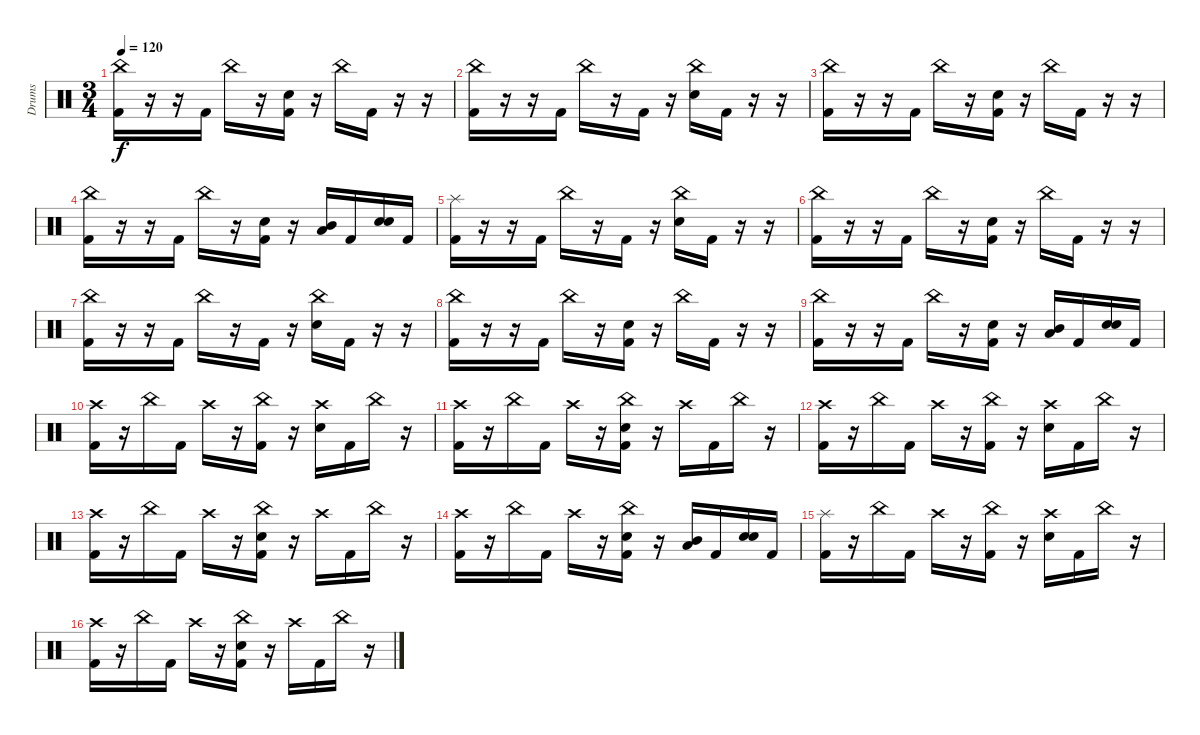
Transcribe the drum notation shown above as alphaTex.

\track ("Drums" "Drums") {instrument percussion}
\staff {score}
\articulation defaults
\ts (3 4)
\tempo 120
\clef neutral
\ks c
("China (hit)" "Kick (hit) 2").16{dy f} r.16 r.16 "Kick (hit) 2".16 "China (hit)".16 r.16 ("Electric Snare (hit)" "Kick (hit) 2").16 r.16 "China (hit)".16 "Kick (hit) 2".16 r.16 r.16 |
("China (hit)" "Kick (hit) 2").16 r.16 r.16 "Kick (hit) 2".16 "China (hit)".16 r.16 "Kick (hit) 2".16 r.16 ("China (hit)" "Electric Snare (hit)").16 "Kick (hit) 2".16 r.16 r.16 |
("China (hit)" "Kick (hit) 2").16 r.16 r.16 "Kick (hit) 2".16 "China (hit)".16 r.16 ("Electric Snare (hit)" "Kick (hit) 2").16 r.16 "China (hit)".16 "Kick (hit) 2".16 r.16 r.16 |
("China (hit)" "Kick (hit) 2").16 r.16 r.16 "Kick (hit) 2".16 "China (hit)".16 r.16 ("Electric Snare (hit)" "Kick (hit) 2").16 r.16 ("Mid Tom (hit)" "Low Tom (hit)").16 "Kick (hit) 2".16 ("Electric Snare (hit)" "Electric Snare (hit)").16{bd 480} "Kick (hit) 2".16 |
("Splash (hit)" "Kick (hit) 2").16 r.16 r.16 "Kick (hit) 2".16 "China (hit)".16 r.16 "Kick (hit) 2".16 r.16 ("China (hit)" "Electric Snare (hit)").16 "Kick (hit) 2".16 r.16 r.16 |
("China (hit)" "Kick (hit) 2").16 r.16 r.16 "Kick (hit) 2".16 "China (hit)".16 r.16 ("Electric Snare (hit)" "Kick (hit) 2").16 r.16 "China (hit)".16 "Kick (hit) 2".16 r.16 r.16 |
("China (hit)" "Kick (hit) 2").16 r.16 r.16 "Kick (hit) 2".16 "China (hit)".16 r.16 "Kick (hit) 2".16 r.16 ("China (hit)" "Electric Snare (hit)").16 "Kick (hit) 2".16 r.16 r.16 |
("China (hit)" "Kick (hit) 2").16 r.16 r.16 "Kick (hit) 2".16 "China (hit)".16 r.16 ("Electric Snare (hit)" "Kick (hit) 2").16 r.16 "China (hit)".16 "Kick (hit) 2".16 r.16 r.16 |
("China (hit)" "Kick (hit) 2").16 r.16 r.16 "Kick (hit) 2".16 "China (hit)".16 r.16 ("Electric Snare (hit)" "Kick (hit) 2").16 r.16 ("Mid Tom (hit)" "Low Tom (hit)").16 "Kick (hit) 2".16 ("Electric Snare (hit)" "Electric Snare (hit)").16{bd 480} "Kick (hit) 2".16 |
("Crash high (hit)" "Kick (hit) 2").16 r.16 "China (hit)".16 "Kick (hit) 2".16 "Crash high (hit)".16 r.16 ("China (hit)" "Kick (hit) 2").16 r.16 ("Crash high (hit)" "Electric Snare (hit)").16 "Kick (hit) 2".16 "China (hit)".16 r.16 |
("Crash high (hit)" "Kick (hit) 2").16 r.16 "China (hit)".16 "Kick (hit) 2".16 "Crash high (hit)".16 r.16 ("China (hit)" "Electric Snare (hit)" "Kick (hit) 2").16 r.16 "Crash high (hit)".16 "Kick (hit) 2".16 "China (hit)".16 r.16 |
("Crash high (hit)" "Kick (hit) 2").16 r.16 "China (hit)".16 "Kick (hit) 2".16 "Crash high (hit)".16 r.16 ("China (hit)" "Kick (hit) 2").16 r.16 ("Crash high (hit)" "Electric Snare (hit)").16 "Kick (hit) 2".16 "China (hit)".16 r.16 |
("Crash high (hit)" "Kick (hit) 2").16 r.16 "China (hit)".16 "Kick (hit) 2".16 "Crash high (hit)".16 r.16 ("China (hit)" "Electric Snare (hit)" "Kick (hit) 2").16 r.16 "Crash high (hit)".16 "Kick (hit) 2".16 "China (hit)".16 r.16 |
("Crash high (hit)" "Kick (hit) 2").16 r.16 "China (hit)".16 "Kick (hit) 2".16 "Crash high (hit)".16 r.16 ("China (hit)" "Electric Snare (hit)" "Kick (hit) 2").16 r.16 ("Mid Tom (hit)" "Low Tom (hit)").16 "Kick (hit) 2".16 ("Electric Snare (hit)" "Electric Snare (hit)").16{bd 480} "Kick (hit) 2".16 |
("Splash (hit)" "Kick (hit) 2").16 r.16 "China (hit)".16 "Kick (hit) 2".16 "Crash high (hit)".16 r.16 ("China (hit)" "Kick (hit) 2").16 r.16 ("Crash high (hit)" "Electric Snare (hit)").16 "Kick (hit) 2".16 "China (hit)".16 r.16 |
("Crash high (hit)" "Kick (hit) 2").16 r.16 "China (hit)".16 "Kick (hit) 2".16 "Crash high (hit)".16 r.16 ("China (hit)" "Electric Snare (hit)" "Kick (hit) 2").16 r.16 "Crash high (hit)".16 "Kick (hit) 2".16 "China (hit)".16 r.16
